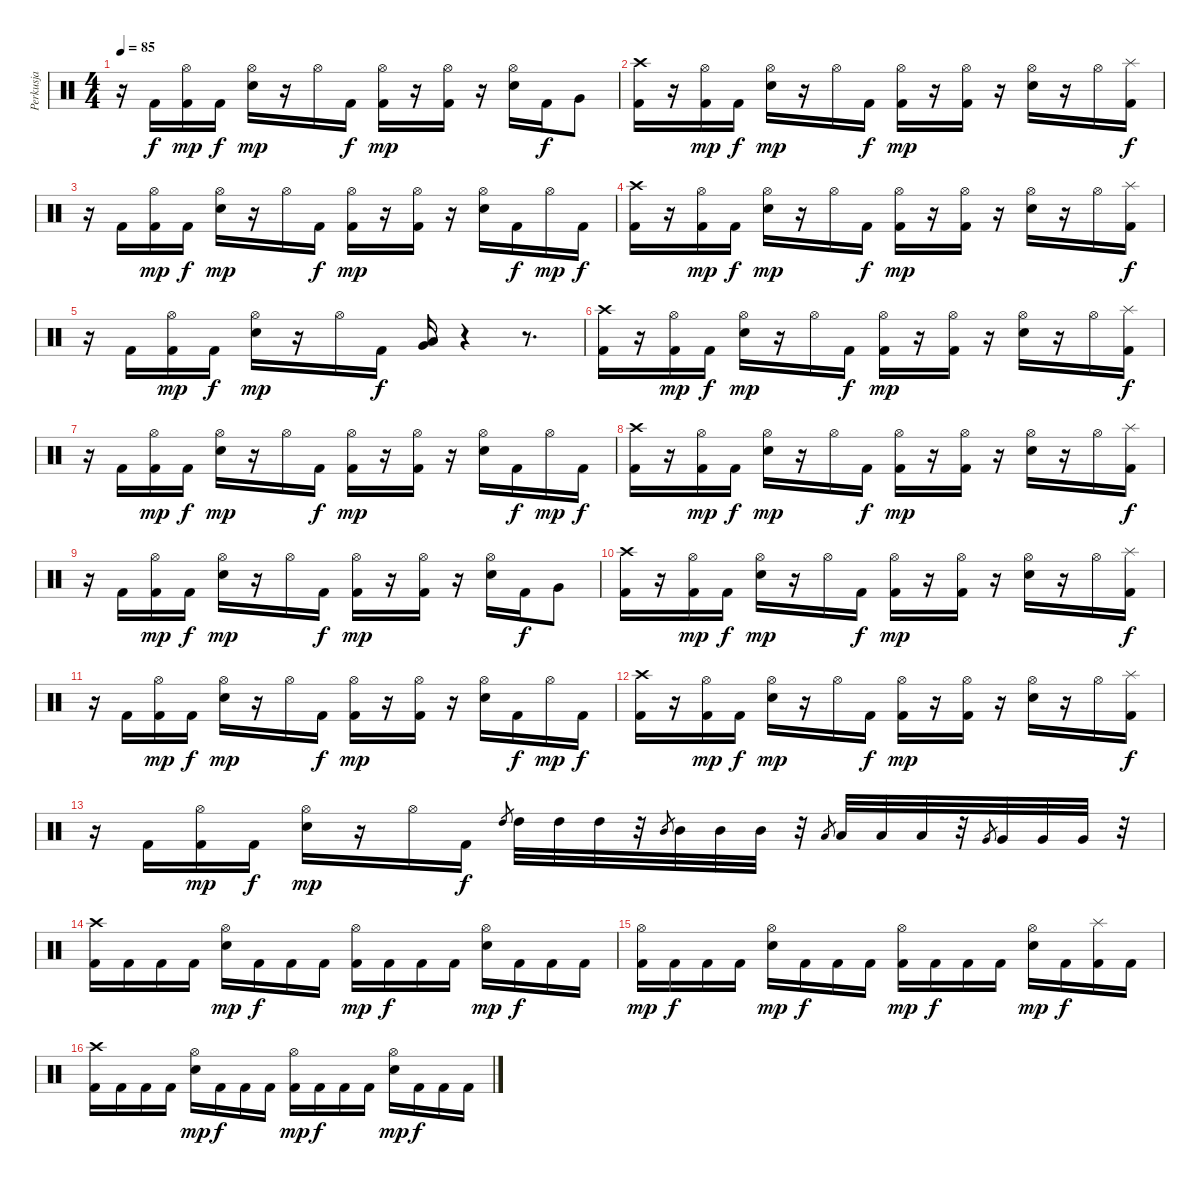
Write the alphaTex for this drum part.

\track ("Perkusja" "Perkusja") {instrument percussion}
\staff {score}
\articulation defaults
\ts (4 4)
\tempo 85
\clef neutral
\ks c
r.16{dy f} "Kick (hit) 2".16 ("Hi-Hat (open)" "Kick (hit) 2").16{dy mp} "Kick (hit) 2".16{dy f} ("Electric Snare (hit)" "Hi-Hat (open)").16{dy mp} r.16 "Hi-Hat (open)".16 "Kick (hit) 2".16{dy f} ("Hi-Hat (open)" "Kick (hit) 2").16{dy mp} r.16 ("Hi-Hat (open)" "Kick (hit) 2").16 r.16 ("Electric Snare (hit)" "Hi-Hat (open)").16 "Kick (hit) 2".16{dy f} "Very Low Tom (hit)".8 |
("Crash high (hit)" "Kick (hit) 2").16 r.16 ("Hi-Hat (open)" "Kick (hit) 2").16{dy mp} "Kick (hit) 2".16{dy f} ("Electric Snare (hit)" "Hi-Hat (open)").16{dy mp} r.16 "Hi-Hat (open)".16 "Kick (hit) 2".16{dy f} ("Hi-Hat (open)" "Kick (hit) 2").16{dy mp} r.16 ("Hi-Hat (open)" "Kick (hit) 2").16 r.16 ("Electric Snare (hit)" "Hi-Hat (open)").16 r.16 "Hi-Hat (open)".16 ("Splash (hit)" "Kick (hit) 2").16{dy f} |
r.16 "Kick (hit) 2".16 ("Hi-Hat (open)" "Kick (hit) 2").16{dy mp} "Kick (hit) 2".16{dy f} ("Electric Snare (hit)" "Hi-Hat (open)").16{dy mp} r.16 "Hi-Hat (open)".16 "Kick (hit) 2".16{dy f} ("Hi-Hat (open)" "Kick (hit) 2").16{dy mp} r.16 ("Hi-Hat (open)" "Kick (hit) 2").16 r.16 ("Electric Snare (hit)" "Hi-Hat (open)").16 "Kick (hit) 2".16{dy f} "Hi-Hat (open)".16{dy mp} "Kick (hit) 2".16{dy f} |
("Crash high (hit)" "Kick (hit) 2").16 r.16 ("Hi-Hat (open)" "Kick (hit) 2").16{dy mp} "Kick (hit) 2".16{dy f} ("Electric Snare (hit)" "Hi-Hat (open)").16{dy mp} r.16 "Hi-Hat (open)".16 "Kick (hit) 2".16{dy f} ("Hi-Hat (open)" "Kick (hit) 2").16{dy mp} r.16 ("Hi-Hat (open)" "Kick (hit) 2").16 r.16 ("Electric Snare (hit)" "Hi-Hat (open)").16 r.16 "Hi-Hat (open)".16 ("Splash (hit)" "Kick (hit) 2").16{dy f} |
r.16 "Kick (hit) 2".16 ("Hi-Hat (open)" "Kick (hit) 2").16{dy mp} "Kick (hit) 2".16{dy f} ("Electric Snare (hit)" "Hi-Hat (open)").16{dy mp} r.16 "Hi-Hat (open)".16 "Kick (hit) 2".16{dy f} ("Low Floor Tom (hit)" "Very Low Tom (hit)").16 r.4 r.8{d} |
("Crash high (hit)" "Kick (hit) 2").16 r.16 ("Hi-Hat (open)" "Kick (hit) 2").16{dy mp} "Kick (hit) 2".16{dy f} ("Electric Snare (hit)" "Hi-Hat (open)").16{dy mp} r.16 "Hi-Hat (open)".16 "Kick (hit) 2".16{dy f} ("Hi-Hat (open)" "Kick (hit) 2").16{dy mp} r.16 ("Hi-Hat (open)" "Kick (hit) 2").16 r.16 ("Electric Snare (hit)" "Hi-Hat (open)").16 r.16 "Hi-Hat (open)".16 ("Splash (hit)" "Kick (hit) 2").16{dy f} |
r.16 "Kick (hit) 2".16 ("Hi-Hat (open)" "Kick (hit) 2").16{dy mp} "Kick (hit) 2".16{dy f} ("Electric Snare (hit)" "Hi-Hat (open)").16{dy mp} r.16 "Hi-Hat (open)".16 "Kick (hit) 2".16{dy f} ("Hi-Hat (open)" "Kick (hit) 2").16{dy mp} r.16 ("Hi-Hat (open)" "Kick (hit) 2").16 r.16 ("Electric Snare (hit)" "Hi-Hat (open)").16 "Kick (hit) 2".16{dy f} "Hi-Hat (open)".16{dy mp} "Kick (hit) 2".16{dy f} |
("Crash high (hit)" "Kick (hit) 2").16 r.16 ("Hi-Hat (open)" "Kick (hit) 2").16{dy mp} "Kick (hit) 2".16{dy f} ("Electric Snare (hit)" "Hi-Hat (open)").16{dy mp} r.16 "Hi-Hat (open)".16 "Kick (hit) 2".16{dy f} ("Hi-Hat (open)" "Kick (hit) 2").16{dy mp} r.16 ("Hi-Hat (open)" "Kick (hit) 2").16 r.16 ("Electric Snare (hit)" "Hi-Hat (open)").16 r.16 "Hi-Hat (open)".16 ("Splash (hit)" "Kick (hit) 2").16{dy f} |
r.16 "Kick (hit) 2".16 ("Hi-Hat (open)" "Kick (hit) 2").16{dy mp} "Kick (hit) 2".16{dy f} ("Electric Snare (hit)" "Hi-Hat (open)").16{dy mp} r.16 "Hi-Hat (open)".16 "Kick (hit) 2".16{dy f} ("Hi-Hat (open)" "Kick (hit) 2").16{dy mp} r.16 ("Hi-Hat (open)" "Kick (hit) 2").16 r.16 ("Electric Snare (hit)" "Hi-Hat (open)").16 "Kick (hit) 2".16{dy f} "Very Low Tom (hit)".8 |
("Crash high (hit)" "Kick (hit) 2").16 r.16 ("Hi-Hat (open)" "Kick (hit) 2").16{dy mp} "Kick (hit) 2".16{dy f} ("Electric Snare (hit)" "Hi-Hat (open)").16{dy mp} r.16 "Hi-Hat (open)".16 "Kick (hit) 2".16{dy f} ("Hi-Hat (open)" "Kick (hit) 2").16{dy mp} r.16 ("Hi-Hat (open)" "Kick (hit) 2").16 r.16 ("Electric Snare (hit)" "Hi-Hat (open)").16 r.16 "Hi-Hat (open)".16 ("Splash (hit)" "Kick (hit) 2").16{dy f} |
r.16 "Kick (hit) 2".16 ("Hi-Hat (open)" "Kick (hit) 2").16{dy mp} "Kick (hit) 2".16{dy f} ("Electric Snare (hit)" "Hi-Hat (open)").16{dy mp} r.16 "Hi-Hat (open)".16 "Kick (hit) 2".16{dy f} ("Hi-Hat (open)" "Kick (hit) 2").16{dy mp} r.16 ("Hi-Hat (open)" "Kick (hit) 2").16 r.16 ("Electric Snare (hit)" "Hi-Hat (open)").16 "Kick (hit) 2".16{dy f} "Hi-Hat (open)".16{dy mp} "Kick (hit) 2".16{dy f} |
("Crash high (hit)" "Kick (hit) 2").16 r.16 ("Hi-Hat (open)" "Kick (hit) 2").16{dy mp} "Kick (hit) 2".16{dy f} ("Electric Snare (hit)" "Hi-Hat (open)").16{dy mp} r.16 "Hi-Hat (open)".16 "Kick (hit) 2".16{dy f} ("Hi-Hat (open)" "Kick (hit) 2").16{dy mp} r.16 ("Hi-Hat (open)" "Kick (hit) 2").16 r.16 ("Electric Snare (hit)" "Hi-Hat (open)").16 r.16 "Hi-Hat (open)".16 ("Splash (hit)" "Kick (hit) 2").16{dy f} |
r.16 "Kick (hit) 2".16 ("Hi-Hat (open)" "Kick (hit) 2").16{dy mp} "Kick (hit) 2".16{dy f} ("Electric Snare (hit)" "Hi-Hat (open)").16{dy mp} r.16 "Hi-Hat (open)".16 "Kick (hit) 2".16{dy f} "High Tom (hit)".8{gr} "High Tom (hit)".32 "High Tom (hit)".32 "High Tom (hit)".32 r.32 "Mid Tom (hit)".8{gr} "Mid Tom (hit)".32 "Mid Tom (hit)".32 "Mid Tom (hit)".32 r.32 "Low Tom (hit)".8{gr} "Low Tom (hit)".32 "Low Tom (hit)".32 "Low Tom (hit)".32 r.32 "Very Low Tom (hit)".8{gr} "Very Low Tom (hit)".32 "Very Low Tom (hit)".32 "Very Low Tom (hit)".32 r.32 |
("Crash high (hit)" "Kick (hit) 2").16 "Kick (hit) 2".16 "Kick (hit) 2".16 "Kick (hit) 2".16 ("Electric Snare (hit)" "Hi-Hat (open)").16{dy mp} "Kick (hit) 2".16{dy f} "Kick (hit) 2".16 "Kick (hit) 2".16 ("Hi-Hat (open)" "Kick (hit) 2").16{dy mp} "Kick (hit) 2".16{dy f} "Kick (hit) 2".16 "Kick (hit) 2".16 ("Electric Snare (hit)" "Hi-Hat (open)").16{dy mp} "Kick (hit) 2".16{dy f} "Kick (hit) 2".16 "Kick (hit) 2".16 |
("Hi-Hat (open)" "Kick (hit) 2").16{dy mp} "Kick (hit) 2".16{dy f} "Kick (hit) 2".16 "Kick (hit) 2".16 ("Electric Snare (hit)" "Hi-Hat (open)").16{dy mp} "Kick (hit) 2".16{dy f} "Kick (hit) 2".16 "Kick (hit) 2".16 ("Hi-Hat (open)" "Kick (hit) 2").16{dy mp} "Kick (hit) 2".16{dy f} "Kick (hit) 2".16 "Kick (hit) 2".16 ("Electric Snare (hit)" "Hi-Hat (open)").16{dy mp} "Kick (hit) 2".16{dy f} ("Splash (hit)" "Kick (hit) 2").16 "Kick (hit) 2".16 |
("Crash high (hit)" "Kick (hit) 2").16 "Kick (hit) 2".16 "Kick (hit) 2".16 "Kick (hit) 2".16 ("Electric Snare (hit)" "Hi-Hat (open)").16{dy mp} "Kick (hit) 2".16{dy f} "Kick (hit) 2".16 "Kick (hit) 2".16 ("Hi-Hat (open)" "Kick (hit) 2").16{dy mp} "Kick (hit) 2".16{dy f} "Kick (hit) 2".16 "Kick (hit) 2".16 ("Electric Snare (hit)" "Hi-Hat (open)").16{dy mp} "Kick (hit) 2".16{dy f} "Kick (hit) 2".16 "Kick (hit) 2".16
